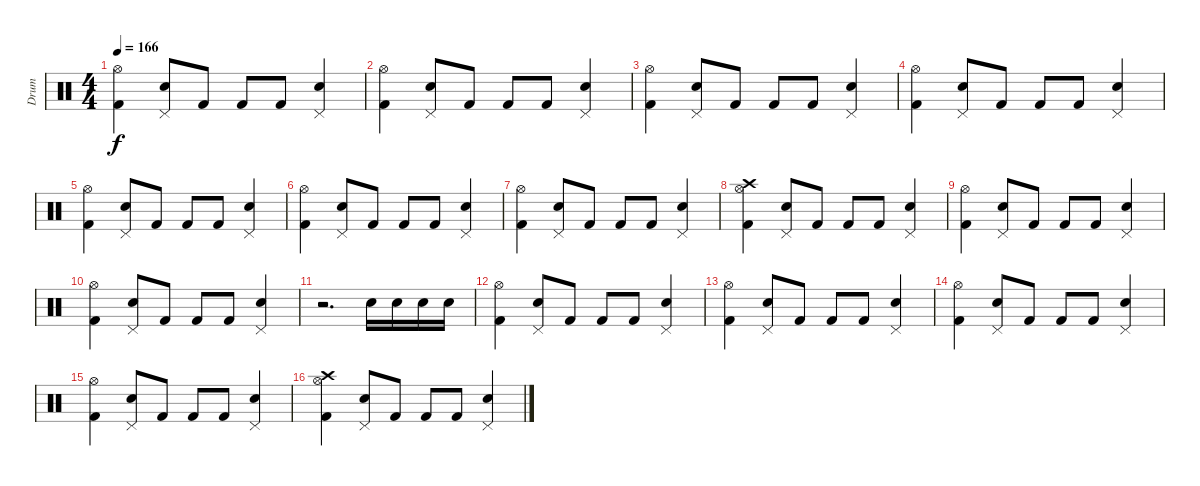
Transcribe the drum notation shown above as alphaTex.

\track ("Drum" "Drum") {instrument percussion}
\staff {score}
\articulation defaults
\ts (4 4)
\tempo 166
\clef neutral
\ks c
("Kick (hit) 2" "Hi-Hat (open)").4{dy f} ("Electric Snare (hit)" "Pedal Hi-Hat (hit)").8 "Kick (hit) 2".8 "Kick (hit) 2".8 "Kick (hit) 2".8 ("Electric Snare (hit)" "Pedal Hi-Hat (hit)").4 |
("Kick (hit) 2" "Hi-Hat (open)").4 ("Electric Snare (hit)" "Pedal Hi-Hat (hit)").8 "Kick (hit) 2".8 "Kick (hit) 2".8 "Kick (hit) 2".8 ("Electric Snare (hit)" "Pedal Hi-Hat (hit)").4 |
("Kick (hit) 2" "Hi-Hat (open)").4 ("Electric Snare (hit)" "Pedal Hi-Hat (hit)").8 "Kick (hit) 2".8 "Kick (hit) 2".8 "Kick (hit) 2".8 ("Electric Snare (hit)" "Pedal Hi-Hat (hit)").4 |
("Kick (hit) 2" "Hi-Hat (open)").4 ("Electric Snare (hit)" "Pedal Hi-Hat (hit)").8 "Kick (hit) 2".8 "Kick (hit) 2".8 "Kick (hit) 2".8 ("Electric Snare (hit)" "Pedal Hi-Hat (hit)").4 |
("Kick (hit) 2" "Hi-Hat (open)").4 ("Electric Snare (hit)" "Pedal Hi-Hat (hit)").8 "Kick (hit) 2".8 "Kick (hit) 2".8 "Kick (hit) 2".8 ("Electric Snare (hit)" "Pedal Hi-Hat (hit)").4 |
("Kick (hit) 2" "Hi-Hat (open)").4 ("Electric Snare (hit)" "Pedal Hi-Hat (hit)").8 "Kick (hit) 2".8 "Kick (hit) 2".8 "Kick (hit) 2".8 ("Electric Snare (hit)" "Pedal Hi-Hat (hit)").4 |
("Kick (hit) 2" "Hi-Hat (open)").4 ("Electric Snare (hit)" "Pedal Hi-Hat (hit)").8 "Kick (hit) 2".8 "Kick (hit) 2".8 "Kick (hit) 2".8 ("Electric Snare (hit)" "Pedal Hi-Hat (hit)").4 |
("Kick (hit) 2" "Hi-Hat (open)" "Crash high (hit)").4 ("Metronome (bell)" "Pedal Hi-Hat (hit)").8 "Kick (hit) 2".8 "Kick (hit) 2".8 "Kick (hit) 2".8 ("Metronome (bell)" "Pedal Hi-Hat (hit)").4 |
("Kick (hit) 2" "Hi-Hat (open)").4 ("Electric Snare (hit)" "Pedal Hi-Hat (hit)").8 "Kick (hit) 2".8 "Kick (hit) 2".8 "Kick (hit) 2".8 ("Electric Snare (hit)" "Pedal Hi-Hat (hit)").4 |
("Kick (hit) 2" "Hi-Hat (open)").4 ("Electric Snare (hit)" "Pedal Hi-Hat (hit)").8 "Kick (hit) 2".8 "Kick (hit) 2".8 "Kick (hit) 2".8 ("Electric Snare (hit)" "Pedal Hi-Hat (hit)").4 |
r.2{d} "Electric Snare (hit)".16 "Electric Snare (hit)".16 "Electric Snare (hit)".16 "Electric Snare (hit)".16 |
("Kick (hit) 2" "Hi-Hat (open)").4 ("Electric Snare (hit)" "Pedal Hi-Hat (hit)").8 "Kick (hit) 2".8 "Kick (hit) 2".8 "Kick (hit) 2".8 ("Electric Snare (hit)" "Pedal Hi-Hat (hit)").4 |
("Kick (hit) 2" "Hi-Hat (open)").4 ("Electric Snare (hit)" "Pedal Hi-Hat (hit)").8 "Kick (hit) 2".8 "Kick (hit) 2".8 "Kick (hit) 2".8 ("Electric Snare (hit)" "Pedal Hi-Hat (hit)").4 |
("Kick (hit) 2" "Hi-Hat (open)").4 ("Electric Snare (hit)" "Pedal Hi-Hat (hit)").8 "Kick (hit) 2".8 "Kick (hit) 2".8 "Kick (hit) 2".8 ("Electric Snare (hit)" "Pedal Hi-Hat (hit)").4 |
("Kick (hit) 2" "Hi-Hat (open)").4 ("Electric Snare (hit)" "Pedal Hi-Hat (hit)").8 "Kick (hit) 2".8 "Kick (hit) 2".8 "Kick (hit) 2".8 ("Electric Snare (hit)" "Pedal Hi-Hat (hit)").4 |
("Kick (hit) 2" "Hi-Hat (open)" "Crash high (hit)").4 ("Metronome (bell)" "Pedal Hi-Hat (hit)").8 "Kick (hit) 2".8 "Kick (hit) 2".8 "Kick (hit) 2".8 ("Metronome (bell)" "Pedal Hi-Hat (hit)").4
